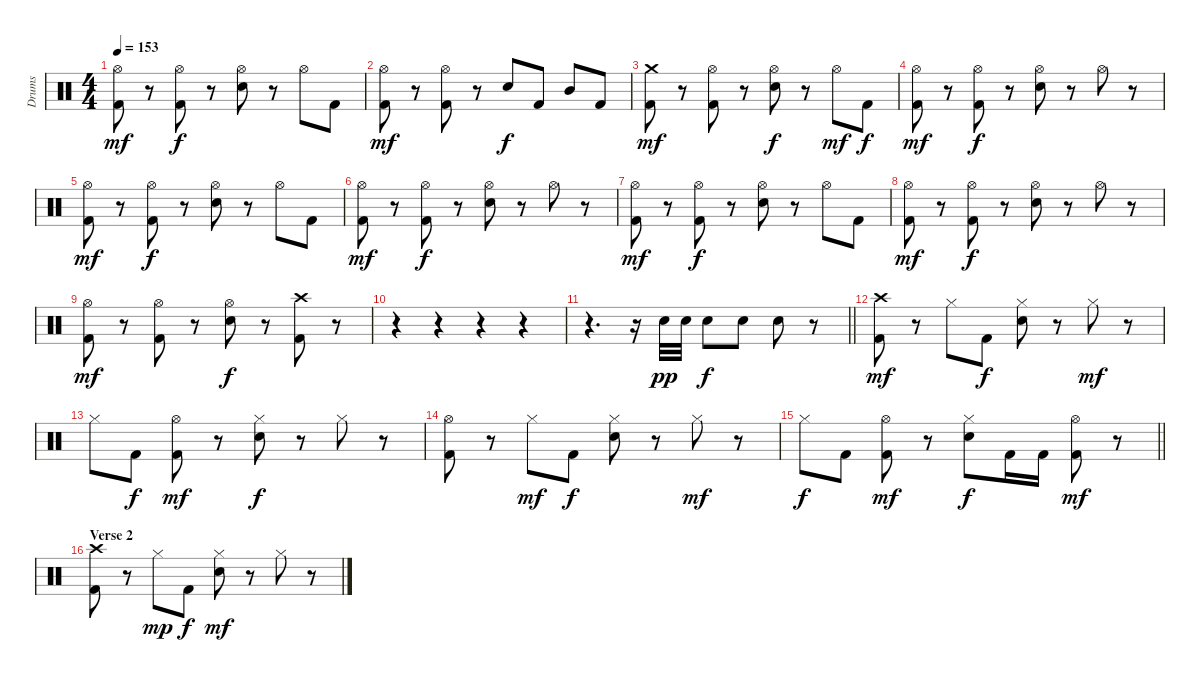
\track ("Drums" "Drums") {instrument percussion}
\staff {score}
\articulation defaults
\ts (4 4)
\tempo 153
\clef neutral
\ks c
("Hi-Hat (open)" "Kick (hit) 2").8{dy mf} r.8 ("Hi-Hat (open)" "Kick (hit) 2").8{dy f} r.8 ("Hi-Hat (open)" "Electric Snare (hit)").8 r.8 "Hi-Hat (open)".8 "Kick (hit) 2".8 |
("Hi-Hat (open)" "Kick (hit) 2").8{dy mf} r.8 ("Hi-Hat (open)" "Kick (hit) 2").8 r.8 "Electric Snare (hit)".8{dy f} "Kick (hit) 2".8 "Mid Tom (hit)".8 "Kick (hit) 2".8 |
("Crash medium (hit)" "Kick (hit) 2").8{dy mf} r.8 ("Hi-Hat (open)" "Kick (hit) 2").8 r.8 ("Hi-Hat (open)" "Electric Snare (hit)").8{dy f} r.8 "Hi-Hat (open)".8{dy mf} "Kick (hit) 2".8{dy f} |
("Hi-Hat (open)" "Kick (hit) 2").8{dy mf} r.8 ("Hi-Hat (open)" "Kick (hit) 2").8{dy f} r.8 ("Hi-Hat (open)" "Electric Snare (hit)").8 r.8 "Hi-Hat (open)".8 r.8 |
("Hi-Hat (open)" "Kick (hit) 2").8{dy mf} r.8 ("Hi-Hat (open)" "Kick (hit) 2").8{dy f} r.8 ("Hi-Hat (open)" "Electric Snare (hit)").8 r.8 "Hi-Hat (open)".8 "Kick (hit) 2".8 |
("Hi-Hat (open)" "Kick (hit) 2").8{dy mf} r.8 ("Hi-Hat (open)" "Kick (hit) 2").8{dy f} r.8 ("Hi-Hat (open)" "Electric Snare (hit)").8 r.8 "Hi-Hat (open)".8 r.8 |
("Hi-Hat (open)" "Kick (hit) 2").8{dy mf} r.8 ("Hi-Hat (open)" "Kick (hit) 2").8{dy f} r.8 ("Hi-Hat (open)" "Electric Snare (hit)").8 r.8 "Hi-Hat (open)".8 "Kick (hit) 2".8 |
("Hi-Hat (open)" "Kick (hit) 2").8{dy mf} r.8 ("Hi-Hat (open)" "Kick (hit) 2").8{dy f} r.8 ("Hi-Hat (open)" "Electric Snare (hit)").8 r.8 "Hi-Hat (open)".8 r.8 |
("Hi-Hat (open)" "Kick (hit) 2").8{dy mf} r.8 ("Hi-Hat (open)" "Kick (hit) 2").8 r.8 ("Hi-Hat (open)" "Electric Snare (hit)").8{dy f} r.8 ("Crash high (hit)" "Kick (hit) 2").8 r.8 |
r.4 r.4 r.4 r.4 |
\barLineRight lightlight
r.4{d} r.16 "Electric Snare (hit)".32{dy pp} "Electric Snare (hit)".32 "Electric Snare (hit)".8{dy f} "Electric Snare (hit)".8 "Electric Snare (hit)".8 r.8 |
("Crash high (hit)" "Kick (hit) 2").8{dy mf} r.8 "Hi-Hat (closed)".8 "Kick (hit) 2".8{dy f} ("Hi-Hat (closed)" "Electric Snare (hit)").8 r.8 "Hi-Hat (closed)".8{dy mf} r.8 |
"Hi-Hat (closed)".8 "Kick (hit) 2".8{dy f} ("Hi-Hat (open)" "Kick (hit) 2").8{dy mf} r.8 ("Hi-Hat (closed)" "Electric Snare (hit)").8{dy f} r.8 "Hi-Hat (closed)".8 r.8 |
("Hi-Hat (open)" "Kick (hit) 2").8 r.8 "Hi-Hat (closed)".8{dy mf} "Kick (hit) 2".8{dy f} ("Hi-Hat (closed)" "Electric Snare (hit)").8 r.8 "Hi-Hat (closed)".8{dy mf} r.8 |
\barLineRight lightlight "Hi-Hat (closed)".8{dy f} "Kick (hit) 2".8
("Hi-Hat (open)" "Kick (hit) 2").8{dy mf} r.8 ("Hi-Hat (closed)" "Electric Snare (hit)").8{dy f} "Kick (hit) 2".16 "Kick (hit) 2".16 ("Hi-Hat (open)" "Kick (hit) 2").8{dy mf} r.8 |
\section ("" "Verse 2")
("Crash high (hit)" "Kick (hit) 2").8 r.8 "Hi-Hat (closed)".8{dy mp} "Kick (hit) 2".8{dy f} ("Hi-Hat (closed)" "Electric Snare (hit)").8{dy mf} r.8 "Hi-Hat (closed)".8 r.8
